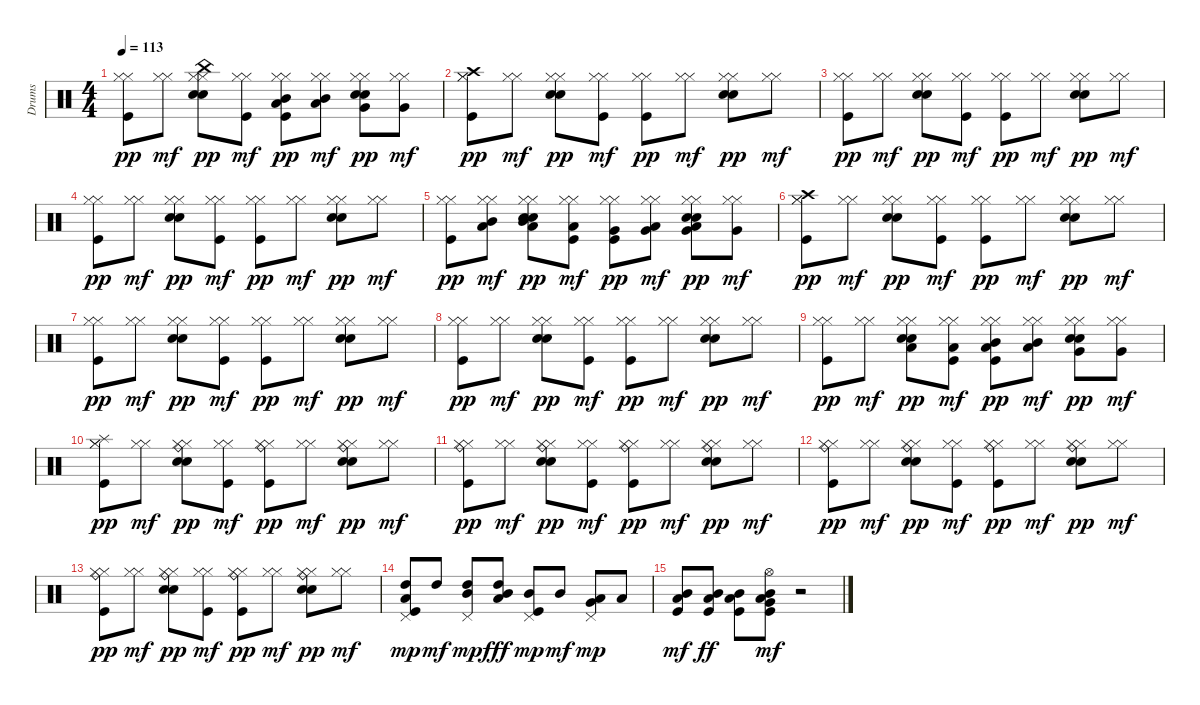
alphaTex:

\track ("Drums" "Drums") {instrument percussion}
\staff {score}
\articulation defaults
\ts (4 4)
\tempo 113
\clef neutral
\ks c
("Kick (hit)" "Hi-Hat (closed)" "Hi-Hat (closed)").8{dy pp} ("Hi-Hat (closed)" "Hi-Hat (closed)").8{dy mf} ("China (hit)" "Snare (hit) 2" "Electric Snare (hit)" "Hi-Hat (closed)" "Hi-Hat (closed)").8{dy pp} ("Kick (hit)" "Hi-Hat (closed)" "Hi-Hat (closed)").8{dy mf} ("Low Tom (hit)" "Kick (hit)" "Hi-Hat (closed)" "Mid Tom (hit)" "Hi-Hat (closed)").8{dy pp} ("Low Tom (hit)" "Hi-Hat (closed)" "Mid Tom (hit)" "Hi-Hat (closed)").8{dy mf} ("Very Low Tom (hit)" "Snare (hit) 2" "Electric Snare (hit)" "Hi-Hat (closed)" "Hi-Hat (closed)").8{dy pp} ("Very Low Tom (hit)" "Hi-Hat (closed)" "Hi-Hat (closed)").8{dy mf} |
("Crash high (hit)" "Kick (hit)" "Hi-Hat (closed)" "Hi-Hat (closed)").8{dy pp} ("Hi-Hat (closed)" "Hi-Hat (closed)").8{dy mf} ("Snare (hit) 2" "Electric Snare (hit)" "Hi-Hat (closed)" "Hi-Hat (closed)").8{dy pp} ("Kick (hit)" "Hi-Hat (closed)" "Hi-Hat (closed)").8{dy mf} ("Kick (hit)" "Hi-Hat (closed)" "Hi-Hat (closed)").8{dy pp} ("Hi-Hat (closed)" "Hi-Hat (closed)").8{dy mf} ("Snare (hit) 2" "Electric Snare (hit)" "Hi-Hat (closed)" "Hi-Hat (closed)").8{dy pp} ("Hi-Hat (closed)" "Hi-Hat (closed)").8{dy mf} |
("Kick (hit)" "Hi-Hat (closed)" "Hi-Hat (closed)").8{dy pp} ("Hi-Hat (closed)" "Hi-Hat (closed)").8{dy mf} ("Snare (hit) 2" "Electric Snare (hit)" "Hi-Hat (closed)" "Hi-Hat (closed)").8{dy pp} ("Kick (hit)" "Hi-Hat (closed)" "Hi-Hat (closed)").8{dy mf} ("Kick (hit)" "Hi-Hat (closed)" "Hi-Hat (closed)").8{dy pp} ("Hi-Hat (closed)" "Hi-Hat (closed)").8{dy mf} ("Snare (hit) 2" "Electric Snare (hit)" "Hi-Hat (closed)" "Hi-Hat (closed)").8{dy pp} ("Hi-Hat (closed)" "Hi-Hat (closed)").8{dy mf} |
("Kick (hit)" "Hi-Hat (closed)" "Hi-Hat (closed)").8{dy pp} ("Hi-Hat (closed)" "Hi-Hat (closed)").8{dy mf} ("Snare (hit) 2" "Electric Snare (hit)" "Hi-Hat (closed)" "Hi-Hat (closed)").8{dy pp} ("Kick (hit)" "Hi-Hat (closed)" "Hi-Hat (closed)").8{dy mf} ("Kick (hit)" "Hi-Hat (closed)" "Hi-Hat (closed)").8{dy pp} ("Hi-Hat (closed)" "Hi-Hat (closed)").8{dy mf} ("Snare (hit) 2" "Electric Snare (hit)" "Hi-Hat (closed)" "Hi-Hat (closed)").8{dy pp} ("Hi-Hat (closed)" "Hi-Hat (closed)").8{dy mf} |
("Kick (hit)" "Hi-Hat (closed)" "Hi-Hat (closed)").8{dy pp} ("Mid Tom (hit)" "Low Tom (hit)" "Hi-Hat (closed)" "Hi-Hat (closed)").8{dy mf} ("Mid Tom (hit)" "Low Tom (hit)" "Snare (hit) 2" "Electric Snare (hit)" "Hi-Hat (closed)" "Hi-Hat (closed)").8{dy pp} ("Low Tom (hit)" "Kick (hit)" "Hi-Hat (closed)" "Hi-Hat (closed)").8{dy mf} ("Very Low Tom (hit)" "Kick (hit)" "Hi-Hat (closed)" "Hi-Hat (closed)").8{dy pp} ("Very Low Tom (hit)" "Low Tom (hit)" "Hi-Hat (closed)" "Hi-Hat (closed)").8{dy mf} ("Very Low Tom (hit)" "Snare (hit) 2" "Electric Snare (hit)" "Hi-Hat (closed)" "Low Tom (hit)" "Hi-Hat (closed)").8{dy pp} ("Very Low Tom (hit)" "Hi-Hat (closed)" "Hi-Hat (closed)").8{dy mf} |
("Crash high (hit)" "Kick (hit)" "Hi-Hat (closed)" "Hi-Hat (closed)").8{dy pp} ("Hi-Hat (closed)" "Hi-Hat (closed)").8{dy mf} ("Snare (hit) 2" "Electric Snare (hit)" "Hi-Hat (closed)" "Hi-Hat (closed)").8{dy pp} ("Kick (hit)" "Hi-Hat (closed)" "Hi-Hat (closed)").8{dy mf} ("Kick (hit)" "Hi-Hat (closed)" "Hi-Hat (closed)").8{dy pp} ("Hi-Hat (closed)" "Hi-Hat (closed)").8{dy mf} ("Snare (hit) 2" "Electric Snare (hit)" "Hi-Hat (closed)" "Hi-Hat (closed)").8{dy pp} ("Hi-Hat (closed)" "Hi-Hat (closed)").8{dy mf} |
("Kick (hit)" "Hi-Hat (closed)" "Hi-Hat (closed)").8{dy pp} ("Hi-Hat (closed)" "Hi-Hat (closed)").8{dy mf} ("Snare (hit) 2" "Electric Snare (hit)" "Hi-Hat (closed)" "Hi-Hat (closed)").8{dy pp} ("Kick (hit)" "Hi-Hat (closed)" "Hi-Hat (closed)").8{dy mf} ("Kick (hit)" "Hi-Hat (closed)" "Hi-Hat (closed)").8{dy pp} ("Hi-Hat (closed)" "Hi-Hat (closed)").8{dy mf} ("Snare (hit) 2" "Electric Snare (hit)" "Hi-Hat (closed)" "Hi-Hat (closed)").8{dy pp} ("Hi-Hat (closed)" "Hi-Hat (closed)").8{dy mf} |
("Kick (hit)" "Hi-Hat (closed)" "Hi-Hat (closed)").8{dy pp} ("Hi-Hat (closed)" "Hi-Hat (closed)").8{dy mf} ("Snare (hit) 2" "Electric Snare (hit)" "Hi-Hat (closed)" "Hi-Hat (closed)").8{dy pp} ("Kick (hit)" "Hi-Hat (closed)" "Hi-Hat (closed)").8{dy mf} ("Kick (hit)" "Hi-Hat (closed)" "Hi-Hat (closed)").8{dy pp} ("Hi-Hat (closed)" "Hi-Hat (closed)").8{dy mf} ("Snare (hit) 2" "Electric Snare (hit)" "Hi-Hat (closed)" "Hi-Hat (closed)").8{dy pp} ("Hi-Hat (closed)" "Hi-Hat (closed)").8{dy mf} |
("Kick (hit)" "Hi-Hat (closed)" "Hi-Hat (closed)").8{dy pp} ("Hi-Hat (closed)" "Hi-Hat (closed)").8{dy mf} ("Low Tom (hit)" "Snare (hit) 2" "Electric Snare (hit)" "Hi-Hat (closed)" "Hi-Hat (closed)").8{dy pp} ("Low Tom (hit)" "Kick (hit)" "Hi-Hat (closed)" "Hi-Hat (closed)").8{dy mf} ("Low Tom (hit)" "Kick (hit)" "Hi-Hat (closed)" "Mid Tom (hit)" "Hi-Hat (closed)").8{dy pp} ("Low Tom (hit)" "Hi-Hat (closed)" "Mid Tom (hit)" "Hi-Hat (closed)").8{dy mf} ("Very Low Tom (hit)" "Snare (hit) 2" "Electric Snare (hit)" "Hi-Hat (closed)" "Hi-Hat (closed)").8{dy pp} ("Very Low Tom (hit)" "Hi-Hat (closed)" "Hi-Hat (closed)").8{dy mf} |
("Splash (hit)" "Kick (hit)" "Hi-Hat (closed)" "Hi-Hat (closed)").8{dy pp} ("Hi-Hat (closed)" "Hi-Hat (closed)").8{dy mf} ("Ride (bell)" "Snare (hit) 2" "Electric Snare (hit)" "Hi-Hat (closed)" "Hi-Hat (closed)").8{dy pp} ("Kick (hit)" "Hi-Hat (closed)" "Hi-Hat (closed)").8{dy mf} ("Ride (bell)" "Kick (hit)" "Hi-Hat (closed)" "Hi-Hat (closed)").8{dy pp} ("Hi-Hat (closed)" "Hi-Hat (closed)").8{dy mf} ("Ride (bell)" "Snare (hit) 2" "Electric Snare (hit)" "Hi-Hat (closed)" "Hi-Hat (closed)").8{dy pp} ("Hi-Hat (closed)" "Hi-Hat (closed)").8{dy mf} |
("Ride (bell)" "Kick (hit)" "Hi-Hat (closed)" "Hi-Hat (closed)").8{dy pp} ("Hi-Hat (closed)" "Hi-Hat (closed)").8{dy mf} ("Ride (bell)" "Snare (hit) 2" "Electric Snare (hit)" "Hi-Hat (closed)" "Hi-Hat (closed)").8{dy pp} ("Kick (hit)" "Hi-Hat (closed)" "Hi-Hat (closed)").8{dy mf} ("Ride (bell)" "Kick (hit)" "Hi-Hat (closed)" "Hi-Hat (closed)").8{dy pp} ("Hi-Hat (closed)" "Hi-Hat (closed)").8{dy mf} ("Ride (bell)" "Snare (hit) 2" "Electric Snare (hit)" "Hi-Hat (closed)" "Hi-Hat (closed)").8{dy pp} ("Hi-Hat (closed)" "Hi-Hat (closed)").8{dy mf} |
("Ride (bell)" "Kick (hit)" "Hi-Hat (closed)" "Hi-Hat (closed)").8{dy pp} ("Hi-Hat (closed)" "Hi-Hat (closed)").8{dy mf} ("Ride (bell)" "Snare (hit) 2" "Electric Snare (hit)" "Hi-Hat (closed)" "Hi-Hat (closed)").8{dy pp} ("Kick (hit)" "Hi-Hat (closed)" "Hi-Hat (closed)").8{dy mf} ("Ride (bell)" "Kick (hit)" "Hi-Hat (closed)" "Hi-Hat (closed)").8{dy pp} ("Hi-Hat (closed)" "Hi-Hat (closed)").8{dy mf} ("Ride (bell)" "Snare (hit) 2" "Electric Snare (hit)" "Hi-Hat (closed)" "Hi-Hat (closed)").8{dy pp} ("Hi-Hat (closed)" "Hi-Hat (closed)").8{dy mf} |
("Ride (bell)" "Kick (hit)" "Hi-Hat (closed)" "Hi-Hat (closed)").8{dy pp} ("Hi-Hat (closed)" "Hi-Hat (closed)").8{dy mf} ("Ride (bell)" "Snare (hit) 2" "Electric Snare (hit)" "Hi-Hat (closed)" "Hi-Hat (closed)").8{dy pp} ("Kick (hit)" "Hi-Hat (closed)" "Hi-Hat (closed)").8{dy mf} ("Ride (bell)" "Kick (hit)" "Hi-Hat (closed)" "Hi-Hat (closed)").8{dy pp} ("Hi-Hat (closed)" "Hi-Hat (closed)").8{dy mf} ("Ride (bell)" "Snare (hit) 2" "Electric Snare (hit)" "Hi-Hat (closed)" "Hi-Hat (closed)").8{dy pp} ("Hi-Hat (closed)" "Hi-Hat (closed)").8{dy mf} |
("High Tom (hit)" "Low Tom (hit)" "Kick (hit)" "Pedal Hi-Hat (hit)").8{dy mp} "High Tom (hit)".8{dy mf} ("High Tom (hit)" "Mid Tom (hit)" "Pedal Hi-Hat (hit)").8{dy mp} ("High Tom (hit)" "Mid Tom (hit)" "Low Tom (hit)").8{dy fff} ("Mid Tom (hit)" "Kick (hit)" "Pedal Hi-Hat (hit)").8{dy mp} "Mid Tom (hit)".8{dy mf} ("Very Low Tom (hit)" "Low Tom (hit)" "Pedal Hi-Hat (hit)").8{dy mp} "Low Tom (hit)".8 |
("Mid Tom (hit)" "Low Tom (hit)" "Kick (hit)").8{dy mf} ("Mid Tom (hit)" "Low Tom (hit)" "Kick (hit)").8{dy ff} ("Mid Tom (hit)" "Low Tom (hit)" "Kick (hit)").8 ("Mid Tom (hit)" "Very Low Tom (hit)" "Low Tom (hit)" "Kick (hit)" "Hi-Hat (open)").8{dy mf} r.2
